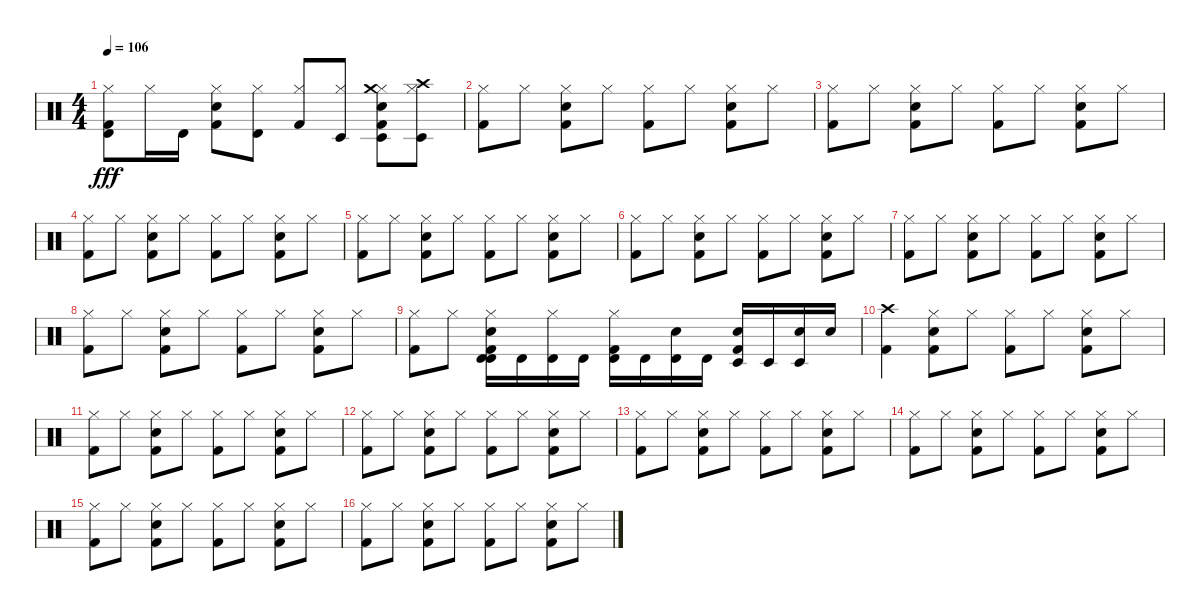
\track "" {instrument percussion}
\staff {score}
\articulation defaults
\ts (4 4)
\tempo 106
\clef neutral
\ks c
("Hi-Hat (closed)" "Kick (hit) 2" "Timbale high (hit)").8{dy fff} "Hi-Hat (closed)".16 "Timbale high (hit)".16 ("Hi-Hat (closed)" "Kick (hit) 2" "Snare (hit) 2").8 ("Timbale high (hit)" "Hi-Hat (closed)").8 ("Kick (hit) 2" "Hi-Hat (closed)").8 ("Timbale low (hit)" "Hi-Hat (closed)").8 ("Hi-Hat (closed)" "Kick (hit) 2" "Snare (hit) 2" "Crash medium (hit)" "Timbale low (hit)").8 ("Crash high (hit)" "Hi-Hat (closed)" "Timbale low (hit)").8 |
("Kick (hit) 2" "Hi-Hat (closed)").8 "Hi-Hat (closed)".8 ("Kick (hit) 2" "Snare (hit) 2" "Hi-Hat (closed)").8 "Hi-Hat (closed)".8 ("Kick (hit) 2" "Hi-Hat (closed)").8 "Hi-Hat (closed)".8 ("Kick (hit) 2" "Snare (hit) 2" "Hi-Hat (closed)").8 "Hi-Hat (closed)".8 |
("Kick (hit) 2" "Hi-Hat (closed)").8 "Hi-Hat (closed)".8 ("Kick (hit) 2" "Snare (hit) 2" "Hi-Hat (closed)").8 "Hi-Hat (closed)".8 ("Kick (hit) 2" "Hi-Hat (closed)").8 "Hi-Hat (closed)".8 ("Kick (hit) 2" "Snare (hit) 2" "Hi-Hat (closed)").8 "Hi-Hat (closed)".8 |
("Kick (hit) 2" "Hi-Hat (closed)").8 "Hi-Hat (closed)".8 ("Kick (hit) 2" "Snare (hit) 2" "Hi-Hat (closed)").8 "Hi-Hat (closed)".8 ("Kick (hit) 2" "Hi-Hat (closed)").8 "Hi-Hat (closed)".8 ("Kick (hit) 2" "Snare (hit) 2" "Hi-Hat (closed)").8 "Hi-Hat (closed)".8 |
("Kick (hit) 2" "Hi-Hat (closed)").8 "Hi-Hat (closed)".8 ("Kick (hit) 2" "Snare (hit) 2" "Hi-Hat (closed)").8 "Hi-Hat (closed)".8 ("Kick (hit) 2" "Hi-Hat (closed)").8 "Hi-Hat (closed)".8 ("Kick (hit) 2" "Snare (hit) 2" "Hi-Hat (closed)").8 "Hi-Hat (closed)".8 |
("Kick (hit) 2" "Hi-Hat (closed)").8 "Hi-Hat (closed)".8 ("Kick (hit) 2" "Snare (hit) 2" "Hi-Hat (closed)").8 "Hi-Hat (closed)".8 ("Kick (hit) 2" "Hi-Hat (closed)").8 "Hi-Hat (closed)".8 ("Kick (hit) 2" "Snare (hit) 2" "Hi-Hat (closed)").8 "Hi-Hat (closed)".8 |
("Kick (hit) 2" "Hi-Hat (closed)").8 "Hi-Hat (closed)".8 ("Kick (hit) 2" "Snare (hit) 2" "Hi-Hat (closed)").8 "Hi-Hat (closed)".8 ("Kick (hit) 2" "Hi-Hat (closed)").8 "Hi-Hat (closed)".8 ("Kick (hit) 2" "Snare (hit) 2" "Hi-Hat (closed)").8 "Hi-Hat (closed)".8 |
("Kick (hit) 2" "Hi-Hat (closed)").8 "Hi-Hat (closed)".8 ("Kick (hit) 2" "Snare (hit) 2" "Hi-Hat (closed)").8 "Hi-Hat (closed)".8 ("Kick (hit) 2" "Hi-Hat (closed)").8 "Hi-Hat (closed)".8 ("Kick (hit) 2" "Snare (hit) 2" "Hi-Hat (closed)").8 "Hi-Hat (closed)".8 |
("Hi-Hat (closed)" "Kick (hit) 2").8 "Hi-Hat (closed)".8 ("Timbale high (hit)" "Hi-Hat (closed)" "Kick (hit) 2" "Snare (hit) 2" "Timbale high (hit)").16 "Timbale high (hit)".16 ("Timbale high (hit)" "Hi-Hat (closed)").16 "Timbale high (hit)".16 ("Timbale high (hit)" "Kick (hit) 2" "Hi-Hat (closed)").16 "Timbale high (hit)".16 ("Snare (hit) 2" "Timbale high (hit)").16 "Timbale high (hit)".16 ("Kick (hit) 2" "Timbale low (hit)" "Snare (hit) 2").16 "Timbale low (hit)".16 ("Timbale low (hit)" "Snare (hit) 2").16 "Snare (hit) 2".16 |
("Kick (hit) 2" "Crash high (hit)").4 ("Kick (hit) 2" "Snare (hit) 2" "Hi-Hat (closed)").8 "Hi-Hat (closed)".8 ("Kick (hit) 2" "Hi-Hat (closed)").8 "Hi-Hat (closed)".8 ("Kick (hit) 2" "Snare (hit) 2" "Hi-Hat (closed)").8 "Hi-Hat (closed)".8 |
("Kick (hit) 2" "Hi-Hat (closed)").8 "Hi-Hat (closed)".8 ("Kick (hit) 2" "Snare (hit) 2" "Hi-Hat (closed)").8 "Hi-Hat (closed)".8 ("Kick (hit) 2" "Hi-Hat (closed)").8 "Hi-Hat (closed)".8 ("Kick (hit) 2" "Snare (hit) 2" "Hi-Hat (closed)").8 "Hi-Hat (closed)".8 |
("Kick (hit) 2" "Hi-Hat (closed)").8 "Hi-Hat (closed)".8 ("Kick (hit) 2" "Snare (hit) 2" "Hi-Hat (closed)").8 "Hi-Hat (closed)".8 ("Kick (hit) 2" "Hi-Hat (closed)").8 "Hi-Hat (closed)".8 ("Kick (hit) 2" "Snare (hit) 2" "Hi-Hat (closed)").8 "Hi-Hat (closed)".8 |
("Kick (hit) 2" "Hi-Hat (closed)").8 "Hi-Hat (closed)".8 ("Kick (hit) 2" "Snare (hit) 2" "Hi-Hat (closed)").8 "Hi-Hat (closed)".8 ("Kick (hit) 2" "Hi-Hat (closed)").8 "Hi-Hat (closed)".8 ("Kick (hit) 2" "Snare (hit) 2" "Hi-Hat (closed)").8 "Hi-Hat (closed)".8 |
("Kick (hit) 2" "Hi-Hat (closed)").8 "Hi-Hat (closed)".8 ("Kick (hit) 2" "Snare (hit) 2" "Hi-Hat (closed)").8 "Hi-Hat (closed)".8 ("Kick (hit) 2" "Hi-Hat (closed)").8 "Hi-Hat (closed)".8 ("Kick (hit) 2" "Snare (hit) 2" "Hi-Hat (closed)").8 "Hi-Hat (closed)".8 |
("Kick (hit) 2" "Hi-Hat (closed)").8 "Hi-Hat (closed)".8 ("Kick (hit) 2" "Snare (hit) 2" "Hi-Hat (closed)").8 "Hi-Hat (closed)".8 ("Kick (hit) 2" "Hi-Hat (closed)").8 "Hi-Hat (closed)".8 ("Kick (hit) 2" "Snare (hit) 2" "Hi-Hat (closed)").8 "Hi-Hat (closed)".8 |
("Kick (hit) 2" "Hi-Hat (closed)").8 "Hi-Hat (closed)".8 ("Kick (hit) 2" "Snare (hit) 2" "Hi-Hat (closed)").8 "Hi-Hat (closed)".8 ("Kick (hit) 2" "Hi-Hat (closed)").8 "Hi-Hat (closed)".8 ("Kick (hit) 2" "Snare (hit) 2" "Hi-Hat (closed)").8 "Hi-Hat (closed)".8
